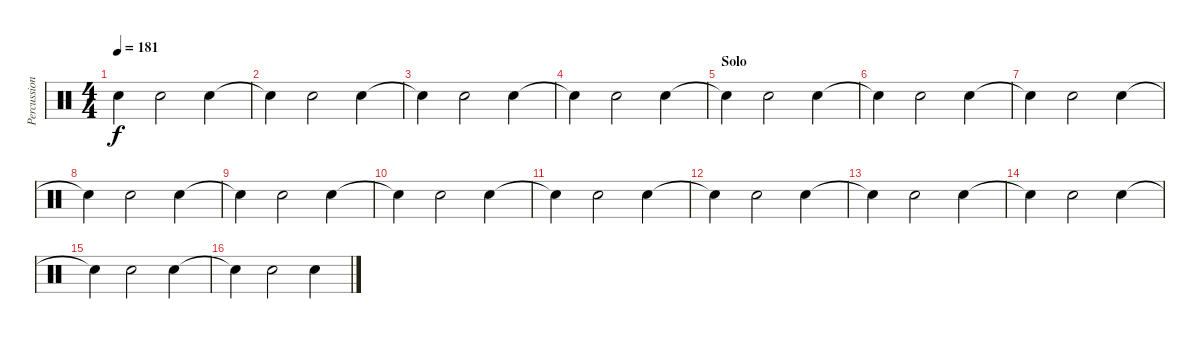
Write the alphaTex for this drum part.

\track ("Percussion" "Percussion") {instrument percussion}
\staff {score}
\articulation defaults
\ts (4 4)
\tempo 181
\clef neutral
\ks c "Hand Clap (hit)"{t}.4{dy f} "Hand Clap (hit)".2 "Hand Clap (hit)".4
|
"Hand Clap (hit)"{t}.4 "Hand Clap (hit)".2 "Hand Clap (hit)".4 |
"Hand Clap (hit)"{t}.4 "Hand Clap (hit)".2 "Hand Clap (hit)".4 |
"Hand Clap (hit)"{t}.4 "Hand Clap (hit)".2 "Hand Clap (hit)".4 |
\section ("" "Solo")
"Hand Clap (hit)"{t}.4 "Hand Clap (hit)".2 "Hand Clap (hit)".4 |
"Hand Clap (hit)"{t}.4 "Hand Clap (hit)".2 "Hand Clap (hit)".4 |
"Hand Clap (hit)"{t}.4 "Hand Clap (hit)".2 "Hand Clap (hit)".4 |
"Hand Clap (hit)"{t}.4 "Hand Clap (hit)".2 "Hand Clap (hit)".4 |
"Hand Clap (hit)"{t}.4 "Hand Clap (hit)".2 "Hand Clap (hit)".4 |
"Hand Clap (hit)"{t}.4 "Hand Clap (hit)".2 "Hand Clap (hit)".4 |
"Hand Clap (hit)"{t}.4 "Hand Clap (hit)".2 "Hand Clap (hit)".4 |
"Hand Clap (hit)"{t}.4 "Hand Clap (hit)".2 "Hand Clap (hit)".4 |
"Hand Clap (hit)"{t}.4 "Hand Clap (hit)".2 "Hand Clap (hit)".4 |
"Hand Clap (hit)"{t}.4 "Hand Clap (hit)".2 "Hand Clap (hit)".4 |
"Hand Clap (hit)"{t}.4 "Hand Clap (hit)".2 "Hand Clap (hit)".4 |
"Hand Clap (hit)"{t}.4 "Hand Clap (hit)".2 "Hand Clap (hit)".4
